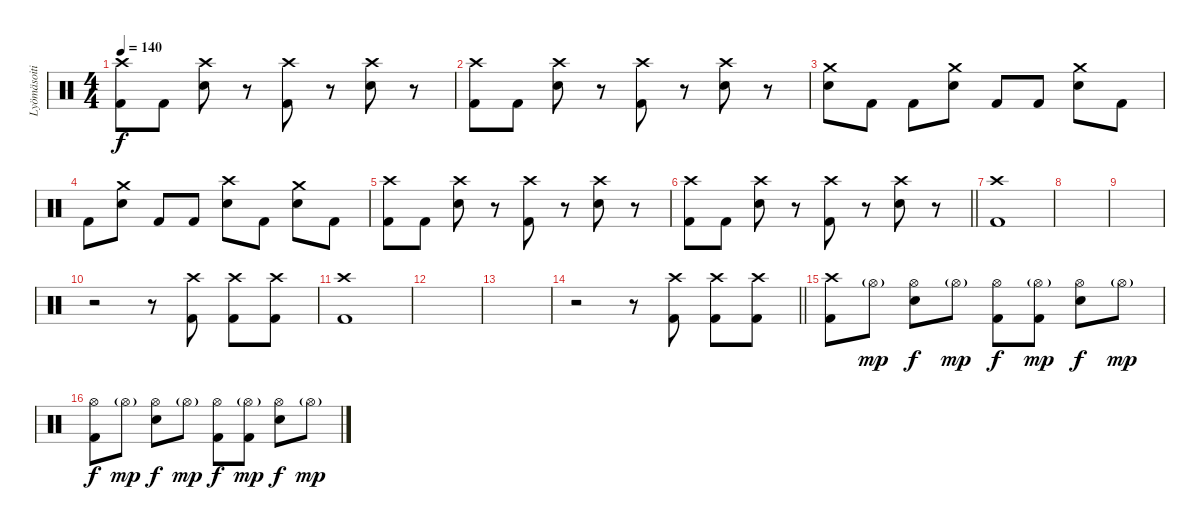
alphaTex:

\track ("Lyömäsoitin" "Lyömäsoiti") {instrument percussion}
\staff {score}
\articulation defaults
\ts (4 4)
\tempo 140
\clef neutral
\ks c
("Crash high (hit)" "Kick (hit) 2").8{dy f} "Kick (hit) 2".8 ("Crash high (hit)" "Electric Snare (hit)").8 r.8 ("Crash high (hit)" "Kick (hit) 2").8 r.8 ("Crash high (hit)" "Electric Snare (hit)").8 r.8 |
("Crash high (hit)" "Kick (hit) 2").8 "Kick (hit) 2".8 ("Crash high (hit)" "Electric Snare (hit)").8 r.8 ("Crash high (hit)" "Kick (hit) 2").8 r.8 ("Crash high (hit)" "Electric Snare (hit)").8 r.8 |
("Crash medium (hit)" "Electric Snare (hit)").8 "Kick (hit) 2".8 "Kick (hit) 2".8 ("Crash medium (hit)" "Electric Snare (hit)").8 "Kick (hit) 2".8 "Kick (hit) 2".8 ("Crash medium (hit)" "Electric Snare (hit)").8 "Kick (hit) 2".8 |
"Kick (hit) 2".8 ("Crash medium (hit)" "Electric Snare (hit)").8 "Kick (hit) 2".8 "Kick (hit) 2".8 ("Crash high (hit)" "Electric Snare (hit)").8 "Kick (hit) 2".8 ("Crash medium (hit)" "Electric Snare (hit)").8 "Kick (hit) 2".8 |
("Crash high (hit)" "Kick (hit) 2").8 "Kick (hit) 2".8 ("Crash high (hit)" "Electric Snare (hit)").8 r.8 ("Crash high (hit)" "Kick (hit) 2").8 r.8 ("Crash high (hit)" "Electric Snare (hit)").8 r.8 |
\barLineRight lightlight
("Crash high (hit)" "Kick (hit) 2").8 "Kick (hit) 2".8 ("Crash high (hit)" "Electric Snare (hit)").8 r.8 ("Crash high (hit)" "Kick (hit) 2").8 r.8 ("Crash high (hit)" "Electric Snare (hit)").8 r.8 |
("Crash high (hit)" "Kick (hit) 2").1 |
|
|
r.2 r.8 ("Crash high (hit)" "Kick (hit) 2").8 ("Crash high (hit)" "Kick (hit) 2").8 ("Crash high (hit)" "Kick (hit) 2").8 |
("Crash high (hit)" "Kick (hit) 2").1 |
|
|
\barLineRight lightlight
r.2 r.8 ("Crash high (hit)" "Kick (hit) 2").8 ("Crash high (hit)" "Kick (hit) 2").8 ("Crash high (hit)" "Kick (hit) 2").8 |
("Crash high (hit)" "Kick (hit) 2").8 "Hi-Hat (open)"{g}.8{dy mp} ("Hi-Hat (open)" "Electric Snare (hit)").8{dy f} "Hi-Hat (open)"{g}.8{dy mp} ("Hi-Hat (open)" "Kick (hit) 2").8{dy f} ("Hi-Hat (open)"{g} "Kick (hit) 2").8{dy mp} ("Hi-Hat (open)" "Electric Snare (hit)").8{dy f} "Hi-Hat (open)"{g}.8{dy mp} |
("Hi-Hat (open)" "Kick (hit) 2").8{dy f} "Hi-Hat (open)"{g}.8{dy mp} ("Hi-Hat (open)" "Electric Snare (hit)").8{dy f} "Hi-Hat (open)"{g}.8{dy mp} ("Hi-Hat (open)" "Kick (hit) 2").8{dy f} ("Hi-Hat (open)"{g} "Kick (hit) 2").8{dy mp} ("Hi-Hat (open)" "Electric Snare (hit)").8{dy f} "Hi-Hat (open)"{g}.8{dy mp}
